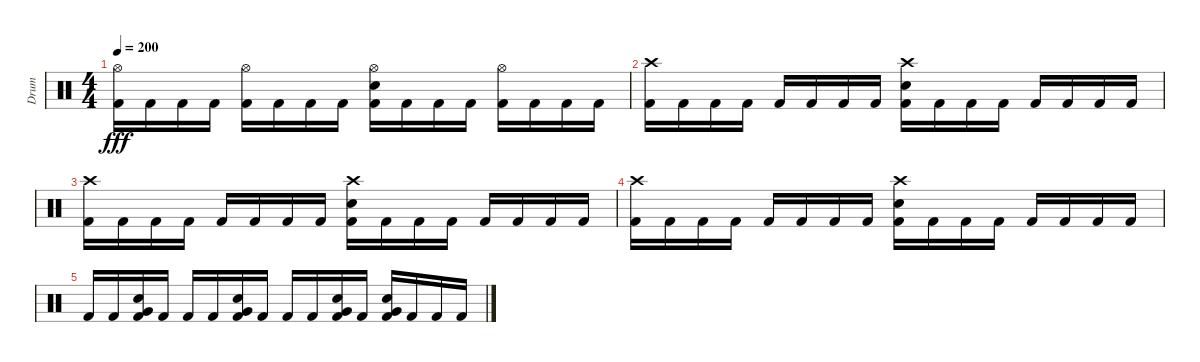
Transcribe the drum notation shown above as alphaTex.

\track ("Drum" "Drum") {instrument percussion}
\staff {score}
\articulation defaults
\ts (4 4)
\tempo 200
\clef neutral
\ks c
("Hi-Hat (open)" "Kick (hit) 2").16{dy fff} "Kick (hit) 2".16 "Kick (hit) 2".16 "Kick (hit) 2".16 ("Hi-Hat (open)" "Kick (hit) 2").16 "Kick (hit) 2".16 "Kick (hit) 2".16 "Kick (hit) 2".16 ("Hi-Hat (open)" "Electric Snare (hit)" "Kick (hit) 2").16 "Kick (hit) 2".16 "Kick (hit) 2".16 "Kick (hit) 2".16 ("Hi-Hat (open)" "Kick (hit) 2").16 "Kick (hit) 2".16 "Kick (hit) 2".16 "Kick (hit) 2".16 |
("Crash high (hit)" "Kick (hit) 2").16 "Kick (hit) 2".16 "Kick (hit) 2".16 "Kick (hit) 2".16 "Kick (hit) 2".16 "Kick (hit) 2".16 "Kick (hit) 2".16 "Kick (hit) 2".16 ("Crash high (hit)" "Electric Snare (hit)" "Kick (hit) 2").16 "Kick (hit) 2".16 "Kick (hit) 2".16 "Kick (hit) 2".16 "Kick (hit) 2".16 "Kick (hit) 2".16 "Kick (hit) 2".16 "Kick (hit) 2".16 |
("Crash high (hit)" "Kick (hit) 2").16 "Kick (hit) 2".16 "Kick (hit) 2".16 "Kick (hit) 2".16 "Kick (hit) 2".16 "Kick (hit) 2".16 "Kick (hit) 2".16 "Kick (hit) 2".16 ("Crash high (hit)" "Electric Snare (hit)" "Kick (hit) 2").16 "Kick (hit) 2".16 "Kick (hit) 2".16 "Kick (hit) 2".16 "Kick (hit) 2".16 "Kick (hit) 2".16 "Kick (hit) 2".16 "Kick (hit) 2".16 |
("Crash high (hit)" "Kick (hit) 2").16 "Kick (hit) 2".16 "Kick (hit) 2".16 "Kick (hit) 2".16 "Kick (hit) 2".16 "Kick (hit) 2".16 "Kick (hit) 2".16 "Kick (hit) 2".16 ("Crash high (hit)" "Electric Snare (hit)" "Kick (hit) 2").16 "Kick (hit) 2".16 "Kick (hit) 2".16 "Kick (hit) 2".16 "Kick (hit) 2".16 "Kick (hit) 2".16 "Kick (hit) 2".16 "Kick (hit) 2".16 |
"Kick (hit) 2".16 "Kick (hit) 2".16 ("Very Low Tom (hit)" "Electric Snare (hit)" "Kick (hit) 2").16 "Kick (hit) 2".16 "Kick (hit) 2".16 "Kick (hit) 2".16 ("Very Low Tom (hit)" "Electric Snare (hit)" "Kick (hit) 2").16 "Kick (hit) 2".16 "Kick (hit) 2".16 "Kick (hit) 2".16 ("Very Low Tom (hit)" "Electric Snare (hit)" "Kick (hit) 2").16 "Kick (hit) 2".16 ("Very Low Tom (hit)" "Electric Snare (hit)" "Kick (hit) 2").16 "Kick (hit) 2".16 "Kick (hit) 2".16 "Kick (hit) 2".16
